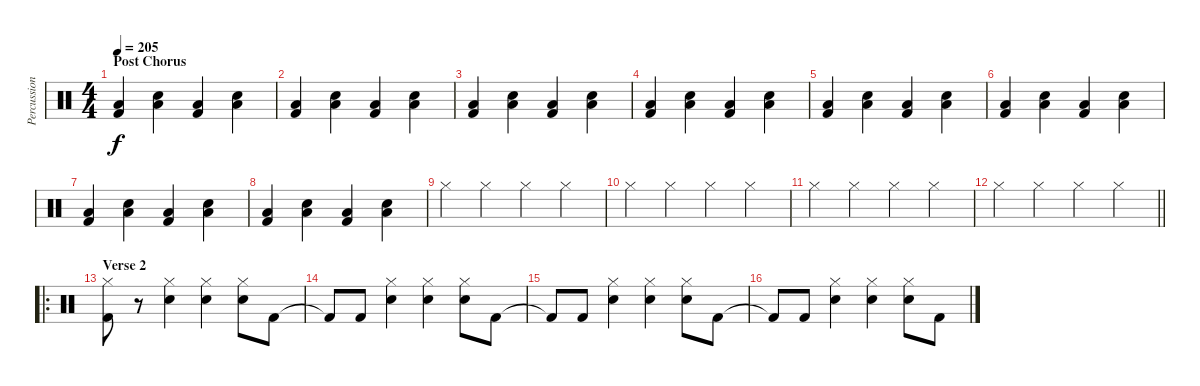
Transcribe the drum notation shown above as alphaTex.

\track ("Percussion" "Percussion") {instrument percussion}
\staff {score}
\articulation defaults
\ts (4 4)
\section ("" "Post Chorus")
\tempo 205
\clef neutral
\ks c
("Low Floor Tom (hit)" "Kick (hit) 2").4{dy f} ("Low Floor Tom (hit)" "Electric Snare (hit)").4 ("Low Floor Tom (hit)" "Kick (hit) 2").4 ("Low Floor Tom (hit)" "Electric Snare (hit)").4 |
("Low Floor Tom (hit)" "Kick (hit) 2").4 ("Low Floor Tom (hit)" "Electric Snare (hit)").4 ("Low Floor Tom (hit)" "Kick (hit) 2").4 ("Low Floor Tom (hit)" "Electric Snare (hit)").4 |
("Low Floor Tom (hit)" "Kick (hit) 2").4 ("Low Floor Tom (hit)" "Electric Snare (hit)").4 ("Low Floor Tom (hit)" "Kick (hit) 2").4 ("Low Floor Tom (hit)" "Electric Snare (hit)").4 |
("Low Floor Tom (hit)" "Kick (hit) 2").4 ("Low Floor Tom (hit)" "Electric Snare (hit)").4 ("Low Floor Tom (hit)" "Kick (hit) 2").4 ("Low Floor Tom (hit)" "Electric Snare (hit)").4 |
("Low Floor Tom (hit)" "Kick (hit) 2").4 ("Low Floor Tom (hit)" "Electric Snare (hit)").4 ("Low Floor Tom (hit)" "Kick (hit) 2").4 ("Low Floor Tom (hit)" "Electric Snare (hit)").4 |
("Low Floor Tom (hit)" "Kick (hit) 2").4 ("Low Floor Tom (hit)" "Electric Snare (hit)").4 ("Low Floor Tom (hit)" "Kick (hit) 2").4 ("Low Floor Tom (hit)" "Electric Snare (hit)").4 |
("Low Floor Tom (hit)" "Kick (hit) 2").4 ("Low Floor Tom (hit)" "Electric Snare (hit)").4 ("Low Floor Tom (hit)" "Kick (hit) 2").4 ("Low Floor Tom (hit)" "Electric Snare (hit)").4 |
("Low Floor Tom (hit)" "Kick (hit) 2").4 ("Low Floor Tom (hit)" "Electric Snare (hit)").4 ("Low Floor Tom (hit)" "Kick (hit) 2").4 ("Low Floor Tom (hit)" "Electric Snare (hit)").4 |
"Hi-Hat (closed)".4 "Hi-Hat (closed)".4 "Hi-Hat (closed)".4 "Hi-Hat (closed)".4 |
"Hi-Hat (closed)".4 "Hi-Hat (closed)".4 "Hi-Hat (closed)".4 "Hi-Hat (closed)".4 |
"Hi-Hat (closed)".4 "Hi-Hat (closed)".4 "Hi-Hat (closed)".4 "Hi-Hat (closed)".4 |
\barLineRight lightlight "Hi-Hat (closed)".4 "Hi-Hat (closed)".4 "Hi-Hat (closed)".4 "Hi-Hat (closed)".4
|
\ro
\section ("" "Verse 2")
("Hi-Hat (closed)" "Kick (hit) 2").8 r.8 ("Hi-Hat (closed)" "Electric Snare (hit)").4 ("Hi-Hat (closed)" "Electric Snare (hit)").4 ("Hi-Hat (closed)" "Electric Snare (hit)").8 "Kick (hit) 2".8 |
"Kick (hit) 2"{t}.8 "Kick (hit) 2".8 ("Hi-Hat (closed)" "Electric Snare (hit)").4 ("Hi-Hat (closed)" "Electric Snare (hit)").4 ("Hi-Hat (closed)" "Electric Snare (hit)").8 "Kick (hit) 2".8 |
"Kick (hit) 2"{t}.8 "Kick (hit) 2".8 ("Hi-Hat (closed)" "Electric Snare (hit)").4 ("Hi-Hat (closed)" "Electric Snare (hit)").4 ("Hi-Hat (closed)" "Electric Snare (hit)").8 "Kick (hit) 2".8 |
"Kick (hit) 2"{t}.8 "Kick (hit) 2".8 ("Hi-Hat (closed)" "Electric Snare (hit)").4 ("Hi-Hat (closed)" "Electric Snare (hit)").4 ("Hi-Hat (closed)" "Electric Snare (hit)").8 "Kick (hit) 2".8
